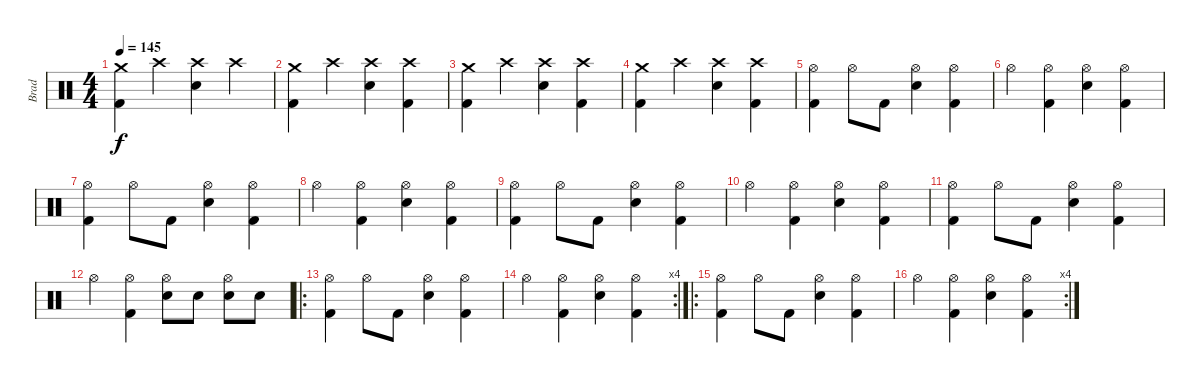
\track ("Brad" "Brad") {instrument percussion}
\staff {score}
\articulation defaults
\ts (4 4)
\tempo 145
\clef neutral
\ks c
("Kick (hit) 2" "Crash medium (hit)").4{dy f} "Crash high (hit)".4 ("Snare (hit) 2" "Crash high (hit)").4 "Crash high (hit)".4 |
("Kick (hit) 2" "Crash medium (hit)").4 "Crash high (hit)".4 ("Snare (hit) 2" "Crash high (hit)").4 ("Kick (hit) 2" "Crash high (hit)").4 |
("Kick (hit) 2" "Crash medium (hit)").4 "Crash high (hit)".4 ("Snare (hit) 2" "Crash high (hit)").4 ("Kick (hit) 2" "Crash high (hit)").4 |
("Kick (hit) 2" "Crash medium (hit)").4 "Crash high (hit)".4 ("Snare (hit) 2" "Crash high (hit)").4 ("Kick (hit) 2" "Crash high (hit)").4 |
("Hi-Hat (open)" "Kick (hit) 2").4 "Hi-Hat (open)".8 "Kick (hit) 2".8 ("Hi-Hat (open)" "Snare (hit) 2").4 ("Hi-Hat (open)" "Kick (hit) 2").4 |
"Hi-Hat (open)".4 ("Hi-Hat (open)" "Kick (hit) 2").4 ("Hi-Hat (open)" "Snare (hit) 2").4 ("Hi-Hat (open)" "Kick (hit) 2").4 |
("Hi-Hat (open)" "Kick (hit) 2").4 "Hi-Hat (open)".8 "Kick (hit) 2".8 ("Hi-Hat (open)" "Snare (hit) 2").4 ("Hi-Hat (open)" "Kick (hit) 2").4 |
"Hi-Hat (open)".4 ("Hi-Hat (open)" "Kick (hit) 2").4 ("Hi-Hat (open)" "Snare (hit) 2").4 ("Hi-Hat (open)" "Kick (hit) 2").4 |
("Hi-Hat (open)" "Kick (hit) 2").4 "Hi-Hat (open)".8 "Kick (hit) 2".8 ("Hi-Hat (open)" "Snare (hit) 2").4 ("Hi-Hat (open)" "Kick (hit) 2").4 |
"Hi-Hat (open)".4 ("Hi-Hat (open)" "Kick (hit) 2").4 ("Hi-Hat (open)" "Snare (hit) 2").4 ("Hi-Hat (open)" "Kick (hit) 2").4 |
("Hi-Hat (open)" "Kick (hit) 2").4 "Hi-Hat (open)".8 "Kick (hit) 2".8 ("Hi-Hat (open)" "Snare (hit) 2").4 ("Hi-Hat (open)" "Kick (hit) 2").4 |
"Hi-Hat (open)".4 ("Hi-Hat (open)" "Kick (hit) 2").4 ("Hi-Hat (open)" "Snare (hit) 2").8 "Snare (hit) 2".8 ("Hi-Hat (open)" "Snare (hit) 2").8 "Snare (hit) 2".8 |
\ro
("Hi-Hat (open)" "Kick (hit) 2").4 "Hi-Hat (open)".8 "Kick (hit) 2".8 ("Hi-Hat (open)" "Snare (hit) 2").4 ("Hi-Hat (open)" "Kick (hit) 2").4 |
\rc 4 "Hi-Hat (open)".4
("Hi-Hat (open)" "Kick (hit) 2").4 ("Hi-Hat (open)" "Snare (hit) 2").4 ("Hi-Hat (open)" "Kick (hit) 2").4 |
\ro
("Hi-Hat (open)" "Kick (hit) 2").4 "Hi-Hat (open)".8 "Kick (hit) 2".8 ("Hi-Hat (open)" "Snare (hit) 2").4 ("Hi-Hat (open)" "Kick (hit) 2").4 |
\rc 4 "Hi-Hat (open)".4
("Hi-Hat (open)" "Kick (hit) 2").4 ("Hi-Hat (open)" "Snare (hit) 2").4 ("Hi-Hat (open)" "Kick (hit) 2").4
